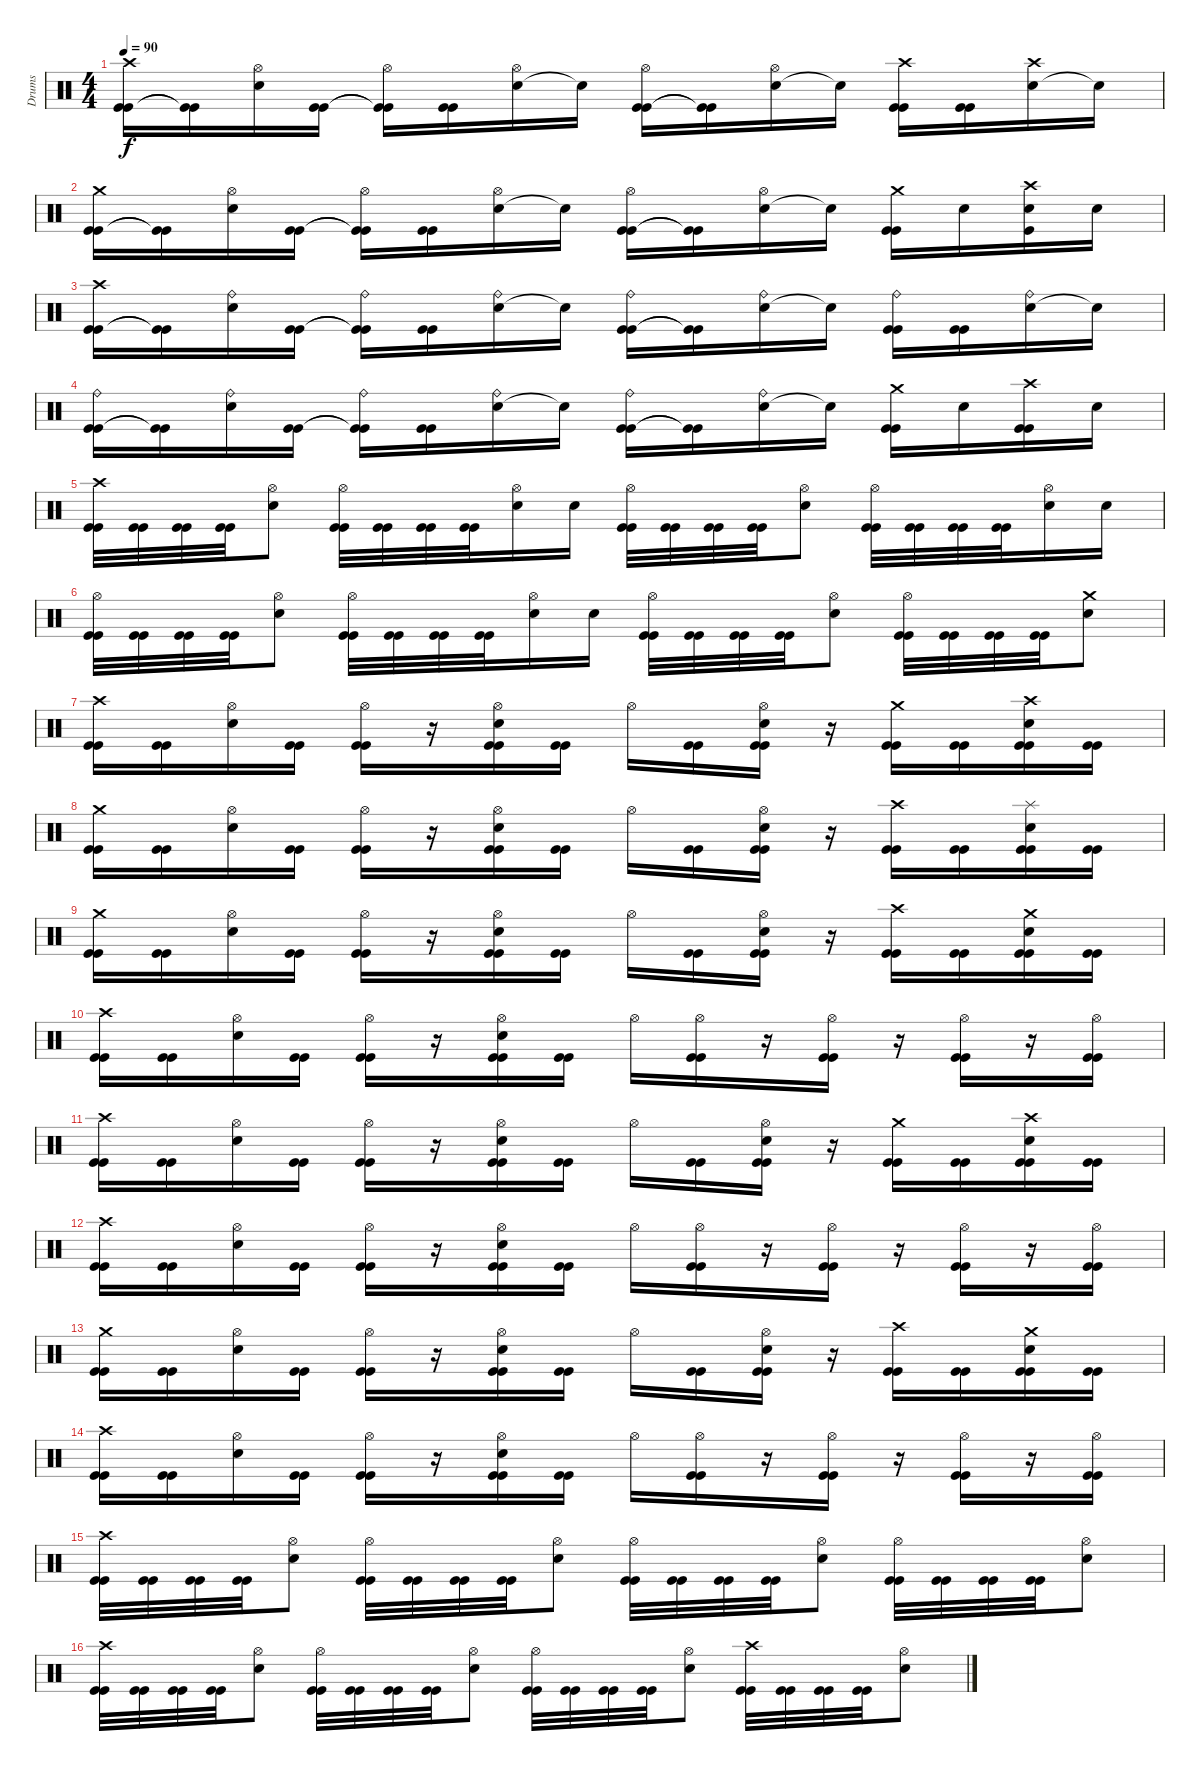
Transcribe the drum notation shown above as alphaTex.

\track ("Drums" "Drums") {instrument percussion}
\staff {score}
\articulation defaults
\ts (4 4)
\tempo 90
\clef neutral
\ks c
("Kick (hit)" "Kick (hit)" "Crash high (hit)").16{dy f} ("Kick (hit)"{t} "Kick (hit)"{t}).16 ("Snare (hit) 2" "Hi-Hat (open)").16 ("Kick (hit)" "Kick (hit)").16 ("Kick (hit)"{t} "Kick (hit)"{t} "Hi-Hat (open)").16 ("Kick (hit)" "Kick (hit)").16 ("Snare (hit) 2" "Hi-Hat (open)").16 "Snare (hit) 2"{t}.16 ("Kick (hit)" "Kick (hit)" "Hi-Hat (open)").16 ("Kick (hit)"{t} "Kick (hit)"{t}).16 ("Snare (hit) 2" "Hi-Hat (open)").16 "Snare (hit) 2"{t}.16 ("Kick (hit)" "Kick (hit)" "Crash high (hit)").16 ("Kick (hit)" "Kick (hit)").16 ("Snare (hit) 2" "Crash high (hit)").16 "Snare (hit) 2"{t}.16 |
("Kick (hit)" "Kick (hit)" "Crash medium (hit)").16 ("Kick (hit)"{t} "Kick (hit)"{t}).16 ("Snare (hit) 2" "Hi-Hat (open)").16 ("Kick (hit)" "Kick (hit)").16 ("Kick (hit)"{t} "Kick (hit)"{t} "Hi-Hat (open)").16 ("Kick (hit)" "Kick (hit)").16 ("Snare (hit) 2" "Hi-Hat (open)").16 "Snare (hit) 2"{t}.16 ("Kick (hit)" "Kick (hit)" "Hi-Hat (open)").16 ("Kick (hit)"{t} "Kick (hit)"{t}).16 ("Snare (hit) 2" "Hi-Hat (open)").16 "Snare (hit) 2"{t}.16 ("Kick (hit)" "Kick (hit)" "Crash medium (hit)").16 "Snare (hit) 2".16 ("Kick (hit)" "Snare (hit) 2" "Crash high (hit)").16 "Snare (hit) 2".16 |
("Kick (hit)" "Kick (hit)" "Crash high (hit)").16 ("Kick (hit)"{t} "Kick (hit)"{t}).16 ("Snare (hit) 2" "Ride (bell)").16 ("Kick (hit)" "Kick (hit)").16 ("Kick (hit)"{t} "Kick (hit)"{t} "Ride (bell)").16 ("Kick (hit)" "Kick (hit)").16 ("Snare (hit) 2" "Ride (bell)").16 "Snare (hit) 2"{t}.16 ("Kick (hit)" "Kick (hit)" "Ride (bell)").16 ("Kick (hit)"{t} "Kick (hit)"{t}).16 ("Snare (hit) 2" "Ride (bell)").16 "Snare (hit) 2"{t}.16 ("Kick (hit)" "Kick (hit)" "Ride (bell)").16 ("Kick (hit)" "Kick (hit)").16 ("Snare (hit) 2" "Ride (bell)").16 "Snare (hit) 2"{t}.16 |
("Kick (hit)" "Kick (hit)" "Ride (bell)").16 ("Kick (hit)"{t} "Kick (hit)"{t}).16 ("Snare (hit) 2" "Ride (bell)").16 ("Kick (hit)" "Kick (hit)").16 ("Kick (hit)"{t} "Kick (hit)"{t} "Ride (bell)").16 ("Kick (hit)" "Kick (hit)").16 ("Snare (hit) 2" "Ride (bell)").16 "Snare (hit) 2"{t}.16 ("Kick (hit)" "Kick (hit)" "Ride (bell)").16 ("Kick (hit)"{t} "Kick (hit)"{t}).16 ("Snare (hit) 2" "Ride (bell)").16 "Snare (hit) 2"{t}.16 ("Kick (hit)" "Kick (hit)" "Crash medium (hit)").16 "Snare (hit) 2".16 ("Kick (hit)" "Kick (hit)" "Crash high (hit)").16 "Snare (hit) 2".16 |
("Kick (hit)" "Kick (hit)" "Crash high (hit)").32 ("Kick (hit)" "Kick (hit)").32 ("Kick (hit)" "Kick (hit)").32 ("Kick (hit)" "Kick (hit)").32 ("Snare (hit) 2" "Hi-Hat (open)").8 ("Kick (hit)" "Kick (hit)" "Hi-Hat (open)").32 ("Kick (hit)" "Kick (hit)").32 ("Kick (hit)" "Kick (hit)").32 ("Kick (hit)" "Kick (hit)").32 ("Snare (hit) 2" "Hi-Hat (open)").16 "Snare (hit) 2".16 ("Kick (hit)" "Kick (hit)" "Hi-Hat (open)").32 ("Kick (hit)" "Kick (hit)").32 ("Kick (hit)" "Kick (hit)").32 ("Kick (hit)" "Kick (hit)").32 ("Snare (hit) 2" "Hi-Hat (open)").8 ("Kick (hit)" "Kick (hit)" "Hi-Hat (open)").32 ("Kick (hit)" "Kick (hit)").32 ("Kick (hit)" "Kick (hit)").32 ("Kick (hit)" "Kick (hit)").32 ("Snare (hit) 2" "Hi-Hat (open)").16 "Snare (hit) 2".16 |
("Kick (hit)" "Kick (hit)" "Hi-Hat (open)").32 ("Kick (hit)" "Kick (hit)").32 ("Kick (hit)" "Kick (hit)").32 ("Kick (hit)" "Kick (hit)").32 ("Snare (hit) 2" "Hi-Hat (open)").8 ("Kick (hit)" "Kick (hit)" "Hi-Hat (open)").32 ("Kick (hit)" "Kick (hit)").32 ("Kick (hit)" "Kick (hit)").32 ("Kick (hit)" "Kick (hit)").32 ("Snare (hit) 2" "Hi-Hat (open)").16 "Snare (hit) 2".16 ("Kick (hit)" "Kick (hit)" "Hi-Hat (open)").32 ("Kick (hit)" "Kick (hit)").32 ("Kick (hit)" "Kick (hit)").32 ("Kick (hit)" "Kick (hit)").32 ("Snare (hit) 2" "Hi-Hat (open)").8 ("Kick (hit)" "Kick (hit)" "Hi-Hat (open)").32 ("Kick (hit)" "Kick (hit)").32 ("Kick (hit)" "Kick (hit)").32 ("Kick (hit)" "Kick (hit)").32 ("Snare (hit) 2" "Crash medium (hit)").8 |
("Kick (hit)" "Kick (hit)" "Crash high (hit)").16 ("Kick (hit)" "Kick (hit)").16 ("Snare (hit) 2" "Hi-Hat (open)").16 ("Kick (hit)" "Kick (hit)").16 ("Kick (hit)" "Kick (hit)" "Hi-Hat (open)").16 r.16 ("Kick (hit)" "Kick (hit)" "Snare (hit) 2" "Hi-Hat (open)").16 ("Kick (hit)" "Kick (hit)").16 "Hi-Hat (open)".16 ("Kick (hit)" "Kick (hit)").16 ("Kick (hit)" "Kick (hit)" "Snare (hit) 2" "Hi-Hat (open)").16 r.16 ("Kick (hit)" "Kick (hit)" "Crash medium (hit)").16 ("Kick (hit)" "Kick (hit)").16 ("Kick (hit)" "Kick (hit)" "Snare (hit) 2" "Crash high (hit)").16 ("Kick (hit)" "Kick (hit)").16 |
("Kick (hit)" "Kick (hit)" "Crash medium (hit)").16 ("Kick (hit)" "Kick (hit)").16 ("Snare (hit) 2" "Hi-Hat (open)").16 ("Kick (hit)" "Kick (hit)").16 ("Kick (hit)" "Kick (hit)" "Hi-Hat (open)").16 r.16 ("Kick (hit)" "Kick (hit)" "Snare (hit) 2" "Hi-Hat (open)").16 ("Kick (hit)" "Kick (hit)").16 "Hi-Hat (open)".16 ("Kick (hit)" "Kick (hit)").16 ("Kick (hit)" "Kick (hit)" "Snare (hit) 2" "Hi-Hat (open)").16 r.16 ("Kick (hit)" "Kick (hit)" "Crash high (hit)").16 ("Kick (hit)" "Kick (hit)").16 ("Kick (hit)" "Kick (hit)" "Snare (hit) 2" "Splash (hit)").16 ("Kick (hit)" "Kick (hit)").16 |
("Kick (hit)" "Kick (hit)" "Crash medium (hit)").16 ("Kick (hit)" "Kick (hit)").16 ("Snare (hit) 2" "Hi-Hat (open)").16 ("Kick (hit)" "Kick (hit)").16 ("Kick (hit)" "Kick (hit)" "Hi-Hat (open)").16 r.16 ("Kick (hit)" "Kick (hit)" "Snare (hit) 2" "Hi-Hat (open)").16 ("Kick (hit)" "Kick (hit)").16 "Hi-Hat (open)".16 ("Kick (hit)" "Kick (hit)").16 ("Kick (hit)" "Kick (hit)" "Snare (hit) 2" "Hi-Hat (open)").16 r.16 ("Kick (hit)" "Kick (hit)" "Crash high (hit)").16 ("Kick (hit)" "Kick (hit)").16 ("Kick (hit)" "Kick (hit)" "Snare (hit) 2" "Crash medium (hit)").16 ("Kick (hit)" "Kick (hit)").16 |
("Kick (hit)" "Kick (hit)" "Crash high (hit)").16 ("Kick (hit)" "Kick (hit)").16 ("Snare (hit) 2" "Hi-Hat (open)").16 ("Kick (hit)" "Kick (hit)").16 ("Kick (hit)" "Kick (hit)" "Hi-Hat (open)").16 r.16 ("Kick (hit)" "Kick (hit)" "Snare (hit) 2" "Hi-Hat (open)").16 ("Kick (hit)" "Kick (hit)").16 "Hi-Hat (open)".16 ("Kick (hit)" "Hi-Hat (open)" "Kick (hit)").16 r.16 ("Kick (hit)" "Hi-Hat (open)" "Kick (hit)").16 r.16 ("Kick (hit)" "Hi-Hat (open)" "Kick (hit)").16 r.16 ("Kick (hit)" "Hi-Hat (open)" "Kick (hit)").16 |
("Kick (hit)" "Kick (hit)" "Crash high (hit)").16 ("Kick (hit)" "Kick (hit)").16 ("Snare (hit) 2" "Hi-Hat (open)").16 ("Kick (hit)" "Kick (hit)").16 ("Kick (hit)" "Kick (hit)" "Hi-Hat (open)").16 r.16 ("Kick (hit)" "Kick (hit)" "Snare (hit) 2" "Hi-Hat (open)").16 ("Kick (hit)" "Kick (hit)").16 "Hi-Hat (open)".16 ("Kick (hit)" "Kick (hit)").16 ("Kick (hit)" "Kick (hit)" "Snare (hit) 2" "Hi-Hat (open)").16 r.16 ("Kick (hit)" "Kick (hit)" "Crash medium (hit)").16 ("Kick (hit)" "Kick (hit)").16 ("Kick (hit)" "Kick (hit)" "Snare (hit) 2" "Crash high (hit)").16 ("Kick (hit)" "Kick (hit)").16 |
("Kick (hit)" "Kick (hit)" "Crash high (hit)").16 ("Kick (hit)" "Kick (hit)").16 ("Snare (hit) 2" "Hi-Hat (open)").16 ("Kick (hit)" "Kick (hit)").16 ("Kick (hit)" "Kick (hit)" "Hi-Hat (open)").16 r.16 ("Kick (hit)" "Kick (hit)" "Snare (hit) 2" "Hi-Hat (open)").16 ("Kick (hit)" "Kick (hit)").16 "Hi-Hat (open)".16 ("Kick (hit)" "Hi-Hat (open)" "Kick (hit)").16 r.16 ("Kick (hit)" "Hi-Hat (open)" "Kick (hit)").16 r.16 ("Kick (hit)" "Hi-Hat (open)" "Kick (hit)").16 r.16 ("Kick (hit)" "Hi-Hat (open)" "Kick (hit)").16 |
("Kick (hit)" "Kick (hit)" "Crash medium (hit)").16 ("Kick (hit)" "Kick (hit)").16 ("Snare (hit) 2" "Hi-Hat (open)").16 ("Kick (hit)" "Kick (hit)").16 ("Kick (hit)" "Kick (hit)" "Hi-Hat (open)").16 r.16 ("Kick (hit)" "Kick (hit)" "Snare (hit) 2" "Hi-Hat (open)").16 ("Kick (hit)" "Kick (hit)").16 "Hi-Hat (open)".16 ("Kick (hit)" "Kick (hit)").16 ("Kick (hit)" "Kick (hit)" "Snare (hit) 2" "Hi-Hat (open)").16 r.16 ("Kick (hit)" "Kick (hit)" "Crash high (hit)").16 ("Kick (hit)" "Kick (hit)").16 ("Kick (hit)" "Kick (hit)" "Snare (hit) 2" "Crash medium (hit)").16 ("Kick (hit)" "Kick (hit)").16 |
("Kick (hit)" "Kick (hit)" "Crash high (hit)").16 ("Kick (hit)" "Kick (hit)").16 ("Snare (hit) 2" "Hi-Hat (open)").16 ("Kick (hit)" "Kick (hit)").16 ("Kick (hit)" "Kick (hit)" "Hi-Hat (open)").16 r.16 ("Kick (hit)" "Kick (hit)" "Snare (hit) 2" "Hi-Hat (open)").16 ("Kick (hit)" "Kick (hit)").16 "Hi-Hat (open)".16 ("Kick (hit)" "Hi-Hat (open)" "Kick (hit)").16 r.16 ("Kick (hit)" "Hi-Hat (open)" "Kick (hit)").16 r.16 ("Kick (hit)" "Hi-Hat (open)" "Kick (hit)").16 r.16 ("Kick (hit)" "Hi-Hat (open)" "Kick (hit)").16 |
("Kick (hit)" "Kick (hit)" "Crash high (hit)").32 ("Kick (hit)" "Kick (hit)").32 ("Kick (hit)" "Kick (hit)").32 ("Kick (hit)" "Kick (hit)").32 ("Snare (hit) 2" "Hi-Hat (open)").8 ("Kick (hit)" "Kick (hit)" "Hi-Hat (open)").32 ("Kick (hit)" "Kick (hit)").32 ("Kick (hit)" "Kick (hit)").32 ("Kick (hit)" "Kick (hit)").32 ("Snare (hit) 2" "Hi-Hat (open)").8 ("Kick (hit)" "Kick (hit)" "Hi-Hat (open)").32 ("Kick (hit)" "Kick (hit)").32 ("Kick (hit)" "Kick (hit)").32 ("Kick (hit)" "Kick (hit)").32 ("Snare (hit) 2" "Hi-Hat (open)").8 ("Kick (hit)" "Kick (hit)" "Hi-Hat (open)").32 ("Kick (hit)" "Kick (hit)").32 ("Kick (hit)" "Kick (hit)").32 ("Kick (hit)" "Kick (hit)").32 ("Snare (hit) 2" "Hi-Hat (open)").8 |
("Kick (hit)" "Kick (hit)" "Crash high (hit)").32 ("Kick (hit)" "Kick (hit)").32 ("Kick (hit)" "Kick (hit)").32 ("Kick (hit)" "Kick (hit)").32 ("Snare (hit) 2" "Hi-Hat (open)").8 ("Kick (hit)" "Kick (hit)" "Hi-Hat (open)").32 ("Kick (hit)" "Kick (hit)").32 ("Kick (hit)" "Kick (hit)").32 ("Kick (hit)" "Kick (hit)").32 ("Snare (hit) 2" "Hi-Hat (open)").8 ("Kick (hit)" "Kick (hit)" "Hi-Hat (open)").32 ("Kick (hit)" "Kick (hit)").32 ("Kick (hit)" "Kick (hit)").32 ("Kick (hit)" "Kick (hit)").32 ("Snare (hit) 2" "Hi-Hat (open)").8 ("Kick (hit)" "Kick (hit)" "Crash high (hit)").32 ("Kick (hit)" "Kick (hit)").32 ("Kick (hit)" "Kick (hit)").32 ("Kick (hit)" "Kick (hit)").32 ("Snare (hit) 2" "Hi-Hat (open)").8
